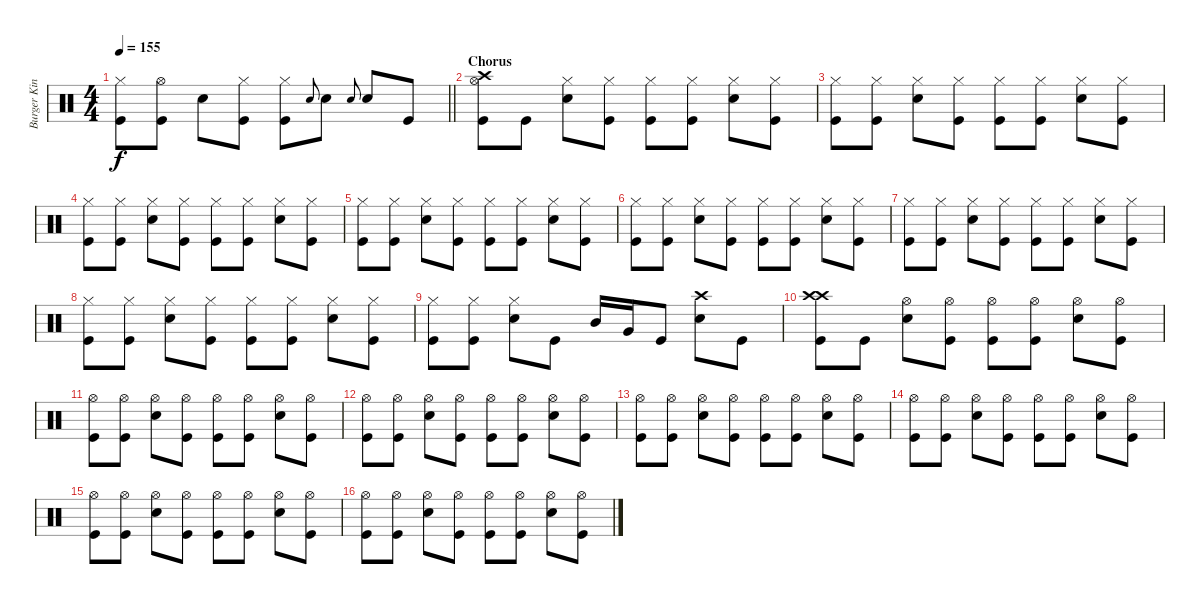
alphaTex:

\track ("Burger King" "Burger Kin") {instrument percussion}
\staff {score}
\articulation defaults
\ts (4 4)
\tempo 155
\clef neutral
\barLineRight lightlight
\ks c
("Kick (hit)" "Hi-Hat (closed)").8{dy f} ("Kick (hit)" "Hi-Hat (open)").8 "Snare (hit) 2".8 ("Kick (hit)" "Hi-Hat (closed)").8 ("Kick (hit)" "Hi-Hat (closed)").8 "Snare (hit) 2".8{gr onbeat} "Snare (hit) 2".8 "Snare (hit) 2".8{gr onbeat} "Snare (hit) 2".8 "Kick (hit)".8 |
\section ("" "Chorus")
("Hi-Hat (open)" "Crash high (hit)" "Kick (hit)").8 "Kick (hit)".8 ("Snare (hit) 2" "Hi-Hat (closed)").8 ("Kick (hit)" "Hi-Hat (closed)").8 ("Kick (hit)" "Hi-Hat (closed)").8 ("Kick (hit)" "Hi-Hat (closed)").8 ("Snare (hit) 2" "Hi-Hat (closed)").8 ("Hi-Hat (closed)" "Kick (hit)").8 |
("Kick (hit)" "Hi-Hat (closed)").8 ("Kick (hit)" "Hi-Hat (closed)").8 ("Snare (hit) 2" "Hi-Hat (closed)").8 ("Kick (hit)" "Hi-Hat (closed)").8 ("Kick (hit)" "Hi-Hat (closed)").8 ("Kick (hit)" "Hi-Hat (closed)").8 ("Snare (hit) 2" "Hi-Hat (closed)").8 ("Kick (hit)" "Hi-Hat (closed)").8 |
("Kick (hit)" "Hi-Hat (closed)").8 ("Kick (hit)" "Hi-Hat (closed)").8 ("Snare (hit) 2" "Hi-Hat (closed)").8 ("Kick (hit)" "Hi-Hat (closed)").8 ("Kick (hit)" "Hi-Hat (closed)").8 ("Kick (hit)" "Hi-Hat (closed)").8 ("Snare (hit) 2" "Hi-Hat (closed)").8 ("Kick (hit)" "Hi-Hat (closed)").8 |
("Kick (hit)" "Hi-Hat (closed)").8 ("Kick (hit)" "Hi-Hat (closed)").8 ("Snare (hit) 2" "Hi-Hat (closed)").8 ("Kick (hit)" "Hi-Hat (closed)").8 ("Kick (hit)" "Hi-Hat (closed)").8 ("Kick (hit)" "Hi-Hat (closed)").8 ("Snare (hit) 2" "Hi-Hat (closed)").8 ("Kick (hit)" "Hi-Hat (closed)").8 |
("Kick (hit)" "Hi-Hat (closed)").8 ("Kick (hit)" "Hi-Hat (closed)").8 ("Snare (hit) 2" "Hi-Hat (closed)").8 ("Kick (hit)" "Hi-Hat (closed)").8 ("Kick (hit)" "Hi-Hat (closed)").8 ("Kick (hit)" "Hi-Hat (closed)").8 ("Snare (hit) 2" "Hi-Hat (closed)").8 ("Kick (hit)" "Hi-Hat (closed)").8 |
("Kick (hit)" "Hi-Hat (closed)").8 ("Kick (hit)" "Hi-Hat (closed)").8 ("Snare (hit) 2" "Hi-Hat (closed)").8 ("Kick (hit)" "Hi-Hat (closed)").8 ("Kick (hit)" "Hi-Hat (closed)").8 ("Kick (hit)" "Hi-Hat (closed)").8 ("Snare (hit) 2" "Hi-Hat (closed)").8 ("Kick (hit)" "Hi-Hat (closed)").8 |
("Kick (hit)" "Hi-Hat (closed)").8 ("Kick (hit)" "Hi-Hat (closed)").8 ("Snare (hit) 2" "Hi-Hat (closed)").8 ("Kick (hit)" "Hi-Hat (closed)").8 ("Kick (hit)" "Hi-Hat (closed)").8 ("Kick (hit)" "Hi-Hat (closed)").8 ("Snare (hit) 2" "Hi-Hat (closed)").8 ("Kick (hit)" "Hi-Hat (closed)").8 |
("Kick (hit)" "Hi-Hat (closed)").8 ("Kick (hit)" "Hi-Hat (closed)").8 ("Snare (hit) 2" "Hi-Hat (closed)").8 "Kick (hit)".8 "Mid Tom (hit)".16 "Very Low Tom (hit)".16 "Kick (hit)".8 ("Crash high (hit)" "Snare (hit) 2").8 "Kick (hit)".8 |
("Crash high (hit)" "Crash high (hit)" "Kick (hit)").8 "Kick (hit)".8 ("Snare (hit) 2" "Hi-Hat (open)").8 ("Kick (hit)" "Hi-Hat (open)").8 ("Kick (hit)" "Hi-Hat (open)").8 ("Kick (hit)" "Hi-Hat (open)").8 ("Snare (hit) 2" "Hi-Hat (open)").8 ("Kick (hit)" "Hi-Hat (open)").8 |
("Kick (hit)" "Hi-Hat (open)").8 ("Kick (hit)" "Hi-Hat (open)").8 ("Snare (hit) 2" "Hi-Hat (open)").8 ("Kick (hit)" "Hi-Hat (open)").8 ("Kick (hit)" "Hi-Hat (open)").8 ("Kick (hit)" "Hi-Hat (open)").8 ("Snare (hit) 2" "Hi-Hat (open)").8 ("Kick (hit)" "Hi-Hat (open)").8 |
("Kick (hit)" "Hi-Hat (open)").8 ("Kick (hit)" "Hi-Hat (open)").8 ("Snare (hit) 2" "Hi-Hat (open)").8 ("Kick (hit)" "Hi-Hat (open)").8 ("Kick (hit)" "Hi-Hat (open)").8 ("Kick (hit)" "Hi-Hat (open)").8 ("Snare (hit) 2" "Hi-Hat (open)").8 ("Kick (hit)" "Hi-Hat (open)").8 |
("Kick (hit)" "Hi-Hat (open)").8 ("Kick (hit)" "Hi-Hat (open)").8 ("Snare (hit) 2" "Hi-Hat (open)").8 ("Kick (hit)" "Hi-Hat (open)").8 ("Kick (hit)" "Hi-Hat (open)").8 ("Kick (hit)" "Hi-Hat (open)").8 ("Snare (hit) 2" "Hi-Hat (open)").8 ("Kick (hit)" "Hi-Hat (open)").8 |
("Kick (hit)" "Hi-Hat (open)").8 ("Kick (hit)" "Hi-Hat (open)").8 ("Snare (hit) 2" "Hi-Hat (open)").8 ("Kick (hit)" "Hi-Hat (open)").8 ("Kick (hit)" "Hi-Hat (open)").8 ("Kick (hit)" "Hi-Hat (open)").8 ("Snare (hit) 2" "Hi-Hat (open)").8 ("Kick (hit)" "Hi-Hat (open)").8 |
("Kick (hit)" "Hi-Hat (open)").8 ("Kick (hit)" "Hi-Hat (open)").8 ("Snare (hit) 2" "Hi-Hat (open)").8 ("Kick (hit)" "Hi-Hat (open)").8 ("Kick (hit)" "Hi-Hat (open)").8 ("Kick (hit)" "Hi-Hat (open)").8 ("Snare (hit) 2" "Hi-Hat (open)").8 ("Kick (hit)" "Hi-Hat (open)").8 |
("Kick (hit)" "Hi-Hat (open)").8 ("Kick (hit)" "Hi-Hat (open)").8 ("Snare (hit) 2" "Hi-Hat (open)").8 ("Kick (hit)" "Hi-Hat (open)").8 ("Kick (hit)" "Hi-Hat (open)").8 ("Kick (hit)" "Hi-Hat (open)").8 ("Snare (hit) 2" "Hi-Hat (open)").8 ("Kick (hit)" "Hi-Hat (open)").8
